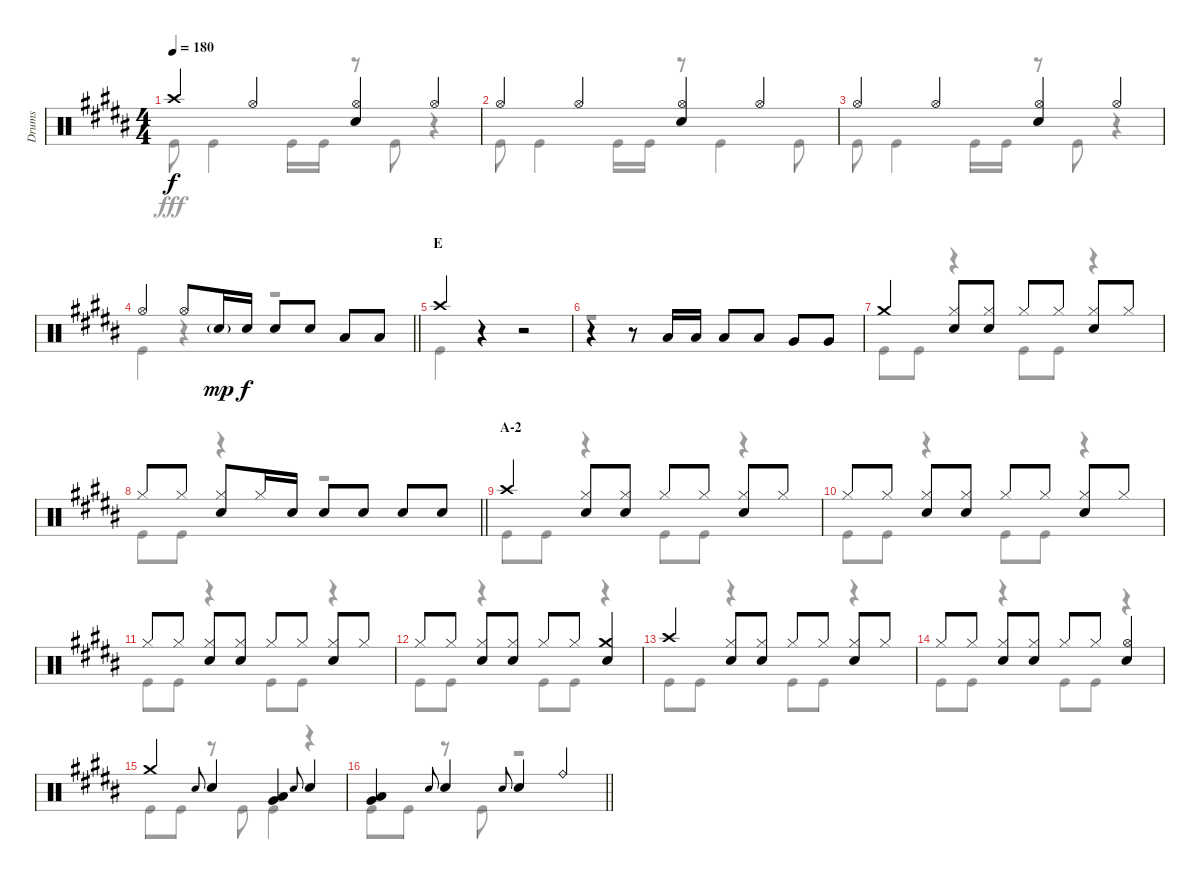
\track ("Drums" "Drums") {instrument percussion}
\staff {score}
\articulation defaults
\voice
\ts (4 4)
\tempo 180
\clef neutral
\ks b "Crash high (hit)".4{dy f} "Hi-Hat (open)".4
("Hi-Hat (open)" "Snare (hit) 2").4 "Hi-Hat (open)".4 |
"Hi-Hat (open)".4 "Hi-Hat (open)".4 ("Hi-Hat (open)" "Snare (hit) 2").4 "Hi-Hat (open)".4 |
"Hi-Hat (open)".4 "Hi-Hat (open)".4 ("Hi-Hat (open)" "Snare (hit) 2").4 "Hi-Hat (open)".4 |
\barLineRight lightlight "Hi-Hat (open)".4 "Hi-Hat (open)".8 "Snare (hit) 2"{g}.16{dy mp} "Snare (hit) 2".16{dy f} "Snare (hit) 2".8 "Snare (hit) 2".8 "Low Tom (hit)".8 "Low Tom (hit)".8
|
\section ("" "E")
"Crash high (hit)".4 r.4 r.2 |
r.4 r.8 "Low Tom (hit)".16 "Low Tom (hit)".16 "Low Tom (hit)".8 "Low Tom (hit)".8 "Very Low Tom (hit)".8 "Very Low Tom (hit)".8 |
"Crash medium (hit)".4 ("Hi-Hat (closed)" "Snare (hit) 2").8 ("Hi-Hat (closed)" "Snare (hit) 2").8 "Hi-Hat (closed)".8 "Hi-Hat (closed)".8 ("Hi-Hat (closed)" "Snare (hit) 2").8 "Hi-Hat (closed)".8 |
\barLineRight lightlight "Hi-Hat (closed)".8 "Hi-Hat (closed)".8
("Hi-Hat (closed)" "Snare (hit) 2").8 "Hi-Hat (closed)".16 "Snare (hit) 2".16 "Snare (hit) 2".8 "Snare (hit) 2".8 "Snare (hit) 2".8 "Snare (hit) 2".8 |
\section ("" "A-2")
"Crash high (hit)".4 ("Hi-Hat (closed)" "Snare (hit) 2").8 ("Hi-Hat (closed)" "Snare (hit) 2").8 "Hi-Hat (closed)".8 "Hi-Hat (closed)".8 ("Hi-Hat (closed)" "Snare (hit) 2").8 "Hi-Hat (closed)".8 |
"Hi-Hat (closed)".8 "Hi-Hat (closed)".8 ("Hi-Hat (closed)" "Snare (hit) 2").8 ("Hi-Hat (closed)" "Snare (hit) 2").8 "Hi-Hat (closed)".8 "Hi-Hat (closed)".8 ("Hi-Hat (closed)" "Snare (hit) 2").8 "Hi-Hat (closed)".8 |
"Hi-Hat (closed)".8 "Hi-Hat (closed)".8 ("Hi-Hat (closed)" "Snare (hit) 2").8 ("Hi-Hat (closed)" "Snare (hit) 2").8 "Hi-Hat (closed)".8 "Hi-Hat (closed)".8 ("Hi-Hat (closed)" "Snare (hit) 2").8 "Hi-Hat (closed)".8 |
"Hi-Hat (closed)".8 "Hi-Hat (closed)".8 ("Hi-Hat (closed)" "Snare (hit) 2").8 ("Hi-Hat (closed)" "Snare (hit) 2").8 "Hi-Hat (closed)".8 "Hi-Hat (closed)".8 ("Crash medium (hit)" "Snare (hit) 2").4 |
"Crash high (hit)".4 ("Hi-Hat (closed)" "Snare (hit) 2").8 ("Hi-Hat (closed)" "Snare (hit) 2").8 "Hi-Hat (closed)".8 "Hi-Hat (closed)".8 ("Hi-Hat (closed)" "Snare (hit) 2").8 "Hi-Hat (closed)".8 |
"Hi-Hat (closed)".8 "Hi-Hat (closed)".8 ("Hi-Hat (closed)" "Snare (hit) 2").8 ("Hi-Hat (closed)" "Snare (hit) 2").8 "Hi-Hat (closed)".8 "Hi-Hat (closed)".8 ("Hi-Hat (open)" "Snare (hit) 2").4 |
"Crash medium (hit)".4 "Snare (hit) 2".8{gr onbeat} "Snare (hit) 2".4 ("Low Tom (hit)" "Very Low Tom (hit)").4 "Snare (hit) 2".8{gr onbeat} "Snare (hit) 2".4 |
\barLineRight lightlight
("Low Tom (hit)" "Very Low Tom (hit)").4 "Snare (hit) 2".8{gr onbeat} "Snare (hit) 2".4 "Snare (hit) 2".8{gr onbeat} "Snare (hit) 2".4 "Ride (bell)".4
\voice
\clef neutral
\ottava regular
\simile none
\ks b "Kick (hit)".8{dy fff} "Kick (hit)".4 "Kick (hit)".16 "Kick (hit)".16
r.8 "Kick (hit)".8 r.4 |
"Kick (hit)".8 "Kick (hit)".4 "Kick (hit)".16 "Kick (hit)".16 r.8 "Kick (hit)".4 "Kick (hit)".8 |
"Kick (hit)".8 "Kick (hit)".4 "Kick (hit)".16 "Kick (hit)".16 r.8 "Kick (hit)".8 r.4 |
\barLineRight lightlight "Kick (hit)".4
r.4 r.2 |
"Kick (hit)".4 r.4 r.2 |
r.1 |
"Kick (hit)".8 "Kick (hit)".8 r.4 "Kick (hit)".8 "Kick (hit)".8 r.4 |
\barLineRight lightlight "Kick (hit)".8 "Kick (hit)".8
r.4 r.2 |
"Kick (hit)".8 "Kick (hit)".8 r.4 "Kick (hit)".8 "Kick (hit)".8 r.4 |
"Kick (hit)".8 "Kick (hit)".8 r.4 "Kick (hit)".8 "Kick (hit)".8 r.4 |
"Kick (hit)".8 "Kick (hit)".8 r.4 "Kick (hit)".8 "Kick (hit)".8 r.4 |
"Kick (hit)".8 "Kick (hit)".8 r.4 "Kick (hit)".8 "Kick (hit)".8 r.4 |
"Kick (hit)".8 "Kick (hit)".8 r.4 "Kick (hit)".8 "Kick (hit)".8 r.4 |
"Kick (hit)".8 "Kick (hit)".8 r.4 "Kick (hit)".8 "Kick (hit)".8 r.4 |
"Kick (hit)".8 "Kick (hit)".8 r.8 "Kick (hit)".8 "Kick (hit)".4 r.4 |
\barLineRight lightlight "Kick (hit)".8 "Kick (hit)".8
r.8 "Kick (hit)".8 r.2
